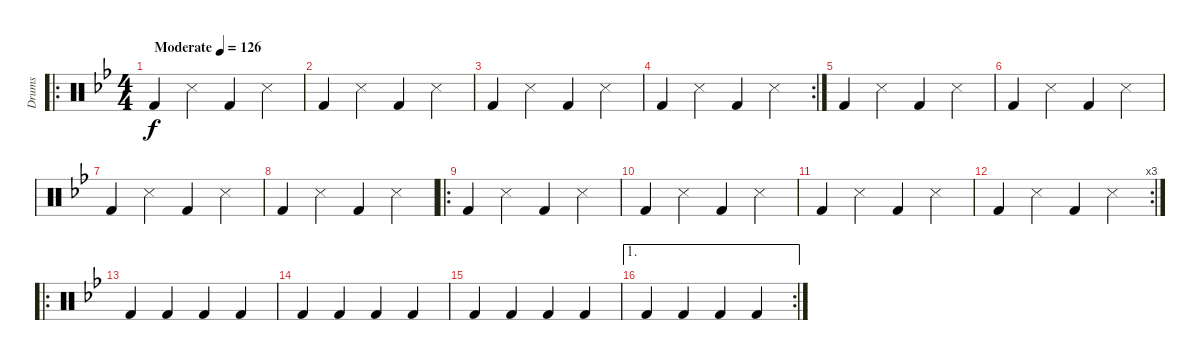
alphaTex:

\track ("Drums" "Drums") {instrument percussion}
\staff {score}
\articulation defaults
\ro
\ts (4 4)
\tempo (126 "Moderate")
\clef neutral
\ks bb "Kick (hit) 2".4{dy f} "Snare (side stick) 3".4 "Kick (hit) 2".4 "Snare (side stick) 3".4
|
"Kick (hit) 2".4 "Snare (side stick) 3".4 "Kick (hit) 2".4 "Snare (side stick) 3".4 |
"Kick (hit) 2".4 "Snare (side stick) 3".4 "Kick (hit) 2".4 "Snare (side stick) 3".4 |
\rc 2 "Kick (hit) 2".4 "Snare (side stick) 3".4 "Kick (hit) 2".4 "Snare (side stick) 3".4
|
"Kick (hit) 2".4 "Snare (side stick) 3".4 "Kick (hit) 2".4 "Snare (side stick) 3".4 |
"Kick (hit) 2".4 "Snare (side stick) 3".4 "Kick (hit) 2".4 "Snare (side stick) 3".4 |
"Kick (hit) 2".4 "Snare (side stick) 3".4 "Kick (hit) 2".4 "Snare (side stick) 3".4 |
"Kick (hit) 2".4 "Snare (side stick) 3".4 "Kick (hit) 2".4 "Snare (side stick) 3".4 |
\ro "Kick (hit) 2".4 "Snare (side stick) 3".4 "Kick (hit) 2".4 "Snare (side stick) 3".4
|
"Kick (hit) 2".4 "Snare (side stick) 3".4 "Kick (hit) 2".4 "Snare (side stick) 3".4 |
"Kick (hit) 2".4 "Snare (side stick) 3".4 "Kick (hit) 2".4 "Snare (side stick) 3".4 |
\rc 3 "Kick (hit) 2".4 "Snare (side stick) 3".4 "Kick (hit) 2".4 "Snare (side stick) 3".4
|
\ro "Kick (hit) 2".4 "Kick (hit) 2".4 "Kick (hit) 2".4 "Kick (hit) 2".4
|
"Kick (hit) 2".4 "Kick (hit) 2".4 "Kick (hit) 2".4 "Kick (hit) 2".4 |
"Kick (hit) 2".4 "Kick (hit) 2".4 "Kick (hit) 2".4 "Kick (hit) 2".4 |
\ae 1
\rc 2 "Kick (hit) 2".4 "Kick (hit) 2".4 "Kick (hit) 2".4 "Kick (hit) 2".4
